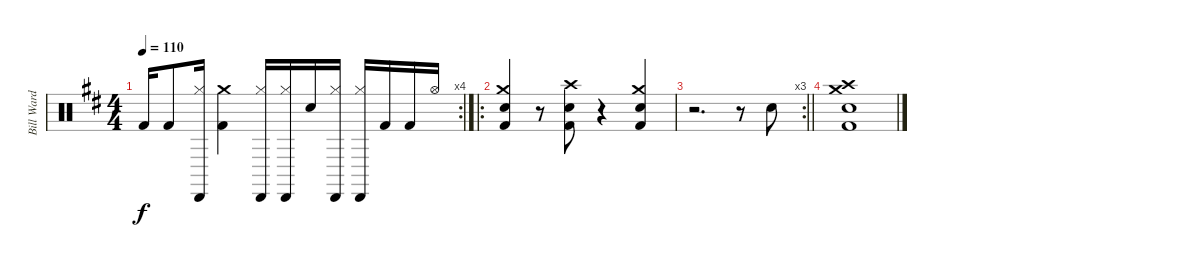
\track ("Bill Ward" "Bill Ward") {instrument percussion}
\staff {score}
\articulation defaults
\rc 4
\ts (4 4)
\tempo 110
\clef neutral
\ks d "Kick (hit) 2".16{dy f} "Kick (hit) 2".8
("Cabasa (hit)" "Hi-Hat (closed)").16 ("Crash medium (hit)" "Kick (hit) 2").4 ("Cabasa (hit)" "Hi-Hat (closed)").16 ("Cabasa (hit)" "Hi-Hat (closed)").16 "Snare (hit) 2".16 ("Cabasa (hit)" "Hi-Hat (closed)").16 ("Cabasa (hit)" "Hi-Hat (closed)").16 "Kick (hit) 2".16 "Kick (hit) 2".16 "Hi-Hat (open)".16 |
\ro
("Crash medium (hit)" "Snare (hit) 2" "Kick (hit) 2").4 r.8 ("Crash high (hit)" "Snare (hit) 2" "Kick (hit) 2").8 r.4 ("Crash medium (hit)" "Snare (hit) 2" "Kick (hit) 2").4 |
\rc 3
\barLineRight lightlight
r.2{d} r.8 "Snare (hit) 2".8 |
("Crash medium (hit)" "Crash high (hit)" "Snare (hit) 2" "Kick (hit) 2").1
